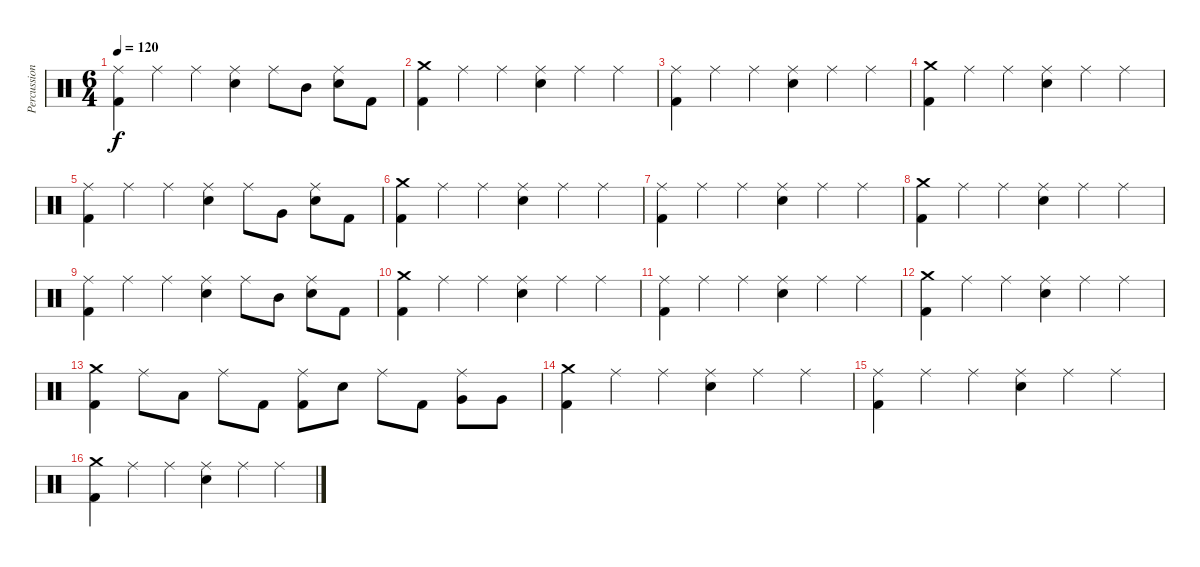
\track ("Percussion" "Percussion") {instrument percussion}
\staff {score}
\articulation defaults
\ts (6 4)
\tempo 120
\clef neutral
\ks c
("Ride (middle)" "Kick (hit) 2").4{dy f} "Ride (middle)".4 "Ride (middle)".4 ("Ride (middle)" "Snare (hit) 2").4 "Ride (middle)".8 "Mid Tom (hit)".8 ("Ride (middle)" "Snare (hit) 2").8 "Kick (hit) 2".8 |
("Crash medium (hit)" "Kick (hit) 2").4 "Ride (middle)".4 "Ride (middle)".4 ("Ride (middle)" "Snare (hit) 2").4 "Ride (middle)".4 "Ride (middle)".4 |
("Ride (middle)" "Kick (hit) 2").4 "Ride (middle)".4 "Ride (middle)".4 ("Ride (middle)" "Snare (hit) 2").4 "Ride (middle)".4 "Ride (middle)".4 |
("Crash medium (hit)" "Kick (hit) 2").4 "Ride (middle)".4 "Ride (middle)".4 ("Ride (middle)" "Snare (hit) 2").4 "Ride (middle)".4 "Ride (middle)".4 |
("Ride (middle)" "Kick (hit) 2").4 "Ride (middle)".4 "Ride (middle)".4 ("Ride (middle)" "Snare (hit) 2").4 "Ride (middle)".8 "Very Low Tom (hit)".8 ("Ride (middle)" "Snare (hit) 2").8 "Kick (hit) 2".8 |
("Crash medium (hit)" "Kick (hit) 2").4 "Ride (middle)".4 "Ride (middle)".4 ("Ride (middle)" "Snare (hit) 2").4 "Ride (middle)".4 "Ride (middle)".4 |
("Ride (middle)" "Kick (hit) 2").4 "Ride (middle)".4 "Ride (middle)".4 ("Ride (middle)" "Snare (hit) 2").4 "Ride (middle)".4 "Ride (middle)".4 |
("Crash medium (hit)" "Kick (hit) 2").4 "Ride (middle)".4 "Ride (middle)".4 ("Ride (middle)" "Snare (hit) 2").4 "Ride (middle)".4 "Ride (middle)".4 |
("Ride (middle)" "Kick (hit) 2").4 "Ride (middle)".4 "Ride (middle)".4 ("Ride (middle)" "Snare (hit) 2").4 "Ride (middle)".8 "Mid Tom (hit)".8 ("Ride (middle)" "Snare (hit) 2").8 "Kick (hit) 2".8 |
("Crash medium (hit)" "Kick (hit) 2").4 "Ride (middle)".4 "Ride (middle)".4 ("Ride (middle)" "Snare (hit) 2").4 "Ride (middle)".4 "Ride (middle)".4 |
("Ride (middle)" "Kick (hit) 2").4 "Ride (middle)".4 "Ride (middle)".4 ("Ride (middle)" "Snare (hit) 2").4 "Ride (middle)".4 "Ride (middle)".4 |
("Crash medium (hit)" "Kick (hit) 2").4 "Ride (middle)".4 "Ride (middle)".4 ("Ride (middle)" "Snare (hit) 2").4 "Ride (middle)".4 "Ride (middle)".4 |
("Crash medium (hit)" "Kick (hit) 2").4 "Ride (middle)".8 "Low Tom (hit)".8 "Ride (middle)".8 "Kick (hit) 2".8 ("Ride (middle)" "Kick (hit) 2").8 "Snare (hit) 2".8 "Ride (middle)".8 "Kick (hit) 2".8 ("Ride (middle)" "Very Low Tom (hit)").8 "Very Low Tom (hit)".8 |
("Crash medium (hit)" "Kick (hit) 2").4{volume 13} "Ride (middle)".4 "Ride (middle)".4 ("Ride (middle)" "Snare (hit) 2").4 "Ride (middle)".4 "Ride (middle)".4 |
("Ride (middle)" "Kick (hit) 2").4 "Ride (middle)".4 "Ride (middle)".4 ("Ride (middle)" "Snare (hit) 2").4 "Ride (middle)".4 "Ride (middle)".4 |
("Crash medium (hit)" "Kick (hit) 2").4 "Ride (middle)".4 "Ride (middle)".4 ("Ride (middle)" "Snare (hit) 2").4 "Ride (middle)".4{volume 10} "Ride (middle)".4
